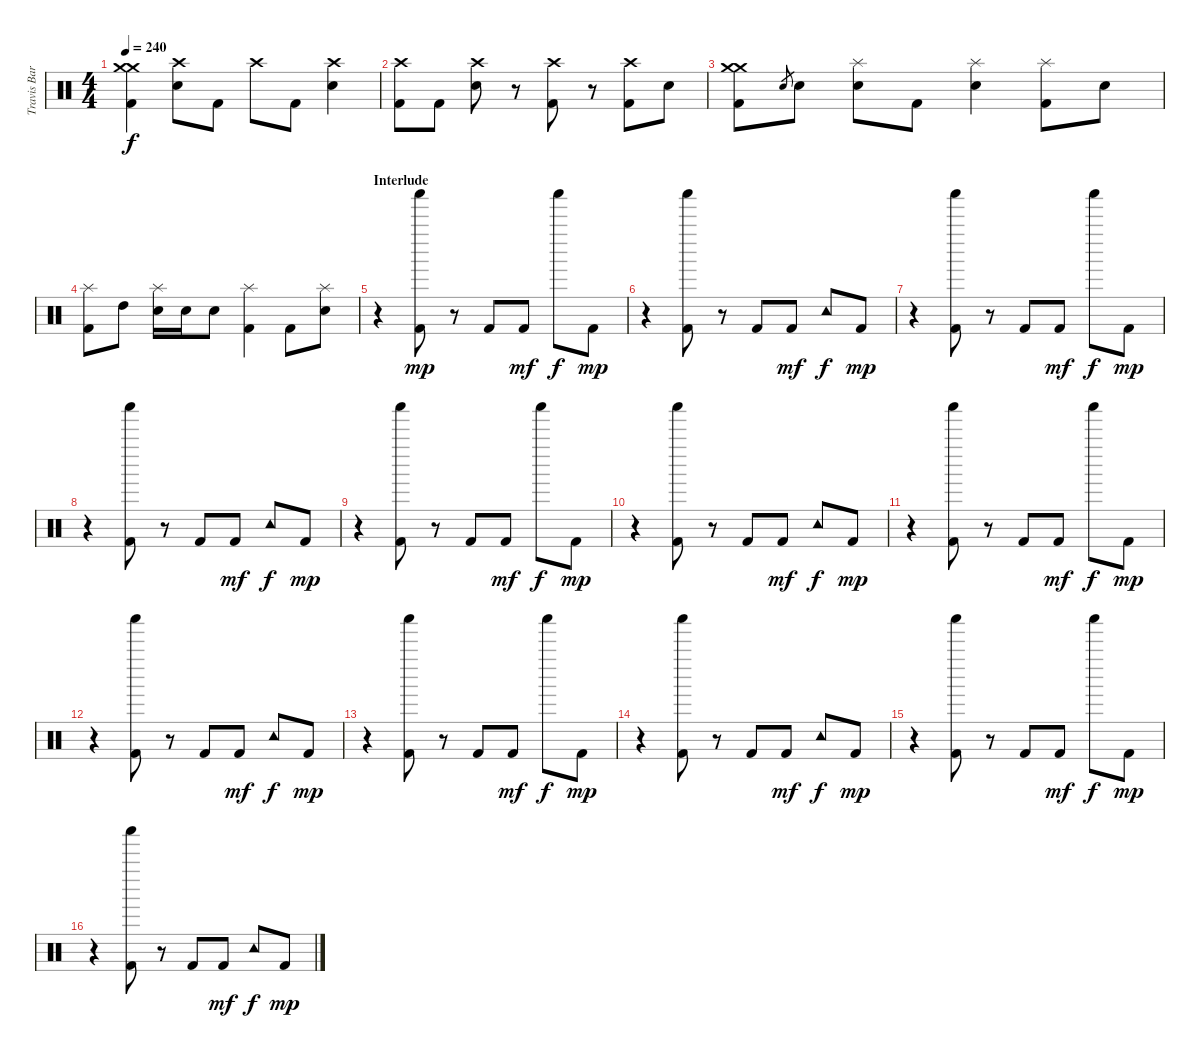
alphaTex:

\track ("Travis Barker - Drums" "Travis Bar") {instrument percussion}
\staff {score}
\articulation defaults
\ts (4 4)
\tempo 240
\clef neutral
\ks c
("Crash medium (hit)" "Crash medium (hit)" "Kick (hit) 2").4{dy f} ("Crash high (hit)" "Electric Snare (hit)").8 "Kick (hit) 2".8 "Crash high (hit)".8 "Kick (hit) 2".8 ("Crash high (hit)" "Electric Snare (hit)").4 |
("Crash high (hit)" "Kick (hit) 2").8 "Kick (hit) 2".8 ("Crash high (hit)" "Electric Snare (hit)").8 r.8 ("Crash high (hit)" "Kick (hit) 2").8 r.8 ("Crash high (hit)" "Kick (hit) 2").8 "Electric Snare (hit)".8 |
("Crash medium (hit)" "Crash medium (hit)" "Kick (hit) 2").8 "Electric Snare (hit)".8{gr} "Electric Snare (hit)".8 ("Splash (hit)" "Electric Snare (hit)").8 "Kick (hit) 2".8 ("Splash (hit)" "Electric Snare (hit)").4 ("Splash (hit)" "Kick (hit) 2").8 "Electric Snare (hit)".8 |
("Splash (hit)" "Kick (hit) 2").8 "High Tom (hit)".8 ("Splash (hit)" "Electric Snare (hit)").16 "Electric Snare (hit)".16 "Electric Snare (hit)".8 ("Splash (hit)" "Kick (hit) 2").4 "Kick (hit) 2".8 ("Splash (hit)" "Electric Snare (hit)").8 |
\section ("" "Interlude")
r.4 ("Shaker (hit)" "Kick (hit) 2").8{dy mp} r.8 "Kick (hit) 2".8 "Kick (hit) 2".8{dy mf} "Shaker (hit)".8{dy f} "Kick (hit) 2".8{dy mp} |
r.4 ("Shaker (hit)" "Kick (hit) 2").8 r.8 "Kick (hit) 2".8 "Kick (hit) 2".8{dy mf} "Tambourine (hit)".8{dy f} "Kick (hit) 2".8{dy mp} |
r.4 ("Shaker (hit)" "Kick (hit) 2").8 r.8 "Kick (hit) 2".8 "Kick (hit) 2".8{dy mf} "Shaker (hit)".8{dy f} "Kick (hit) 2".8{dy mp} |
r.4 ("Shaker (hit)" "Kick (hit) 2").8 r.8 "Kick (hit) 2".8 "Kick (hit) 2".8{dy mf} "Tambourine (hit)".8{dy f} "Kick (hit) 2".8{dy mp} |
r.4 ("Shaker (hit)" "Kick (hit) 2").8 r.8 "Kick (hit) 2".8 "Kick (hit) 2".8{dy mf} "Shaker (hit)".8{dy f} "Kick (hit) 2".8{dy mp} |
r.4 ("Shaker (hit)" "Kick (hit) 2").8 r.8 "Kick (hit) 2".8 "Kick (hit) 2".8{dy mf} "Tambourine (hit)".8{dy f} "Kick (hit) 2".8{dy mp} |
r.4 ("Shaker (hit)" "Kick (hit) 2").8 r.8 "Kick (hit) 2".8 "Kick (hit) 2".8{dy mf} "Shaker (hit)".8{dy f} "Kick (hit) 2".8{dy mp} |
r.4 ("Shaker (hit)" "Kick (hit) 2").8 r.8 "Kick (hit) 2".8 "Kick (hit) 2".8{dy mf} "Tambourine (hit)".8{dy f} "Kick (hit) 2".8{dy mp} |
r.4 ("Shaker (hit)" "Kick (hit) 2").8 r.8 "Kick (hit) 2".8 "Kick (hit) 2".8{dy mf} "Shaker (hit)".8{dy f} "Kick (hit) 2".8{dy mp} |
r.4 ("Shaker (hit)" "Kick (hit) 2").8 r.8 "Kick (hit) 2".8 "Kick (hit) 2".8{dy mf} "Tambourine (hit)".8{dy f} "Kick (hit) 2".8{dy mp} |
r.4 ("Shaker (hit)" "Kick (hit) 2").8 r.8 "Kick (hit) 2".8 "Kick (hit) 2".8{dy mf} "Shaker (hit)".8{dy f} "Kick (hit) 2".8{dy mp} |
r.4 ("Shaker (hit)" "Kick (hit) 2").8 r.8 "Kick (hit) 2".8 "Kick (hit) 2".8{dy mf} "Tambourine (hit)".8{dy f} "Kick (hit) 2".8{dy mp}
